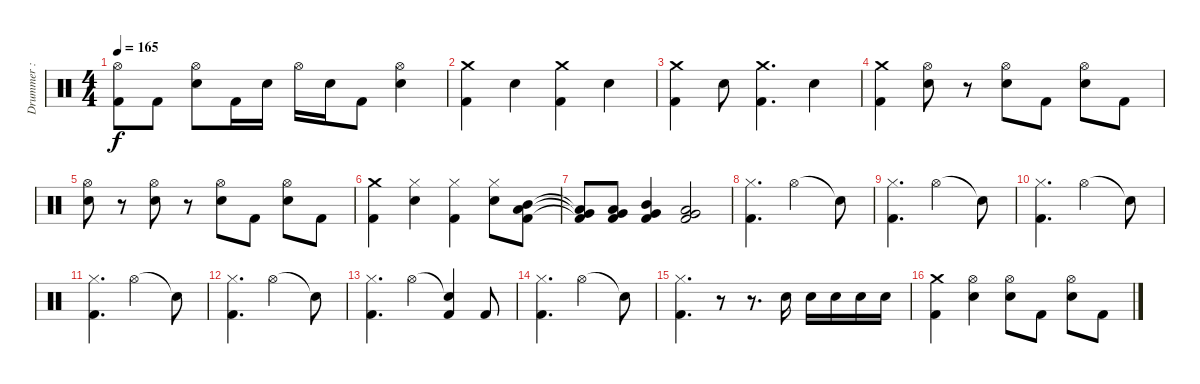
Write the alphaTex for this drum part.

\track ("Drummer : Tainaka Ritsu - Chan" "Drummer : ") {instrument percussion}
\staff {score}
\articulation defaults
\ts (4 4)
\tempo 165
\clef neutral
\ks c
("Hi-Hat (open)" "Kick (hit) 2").8{dy f} "Kick (hit) 2".8 ("Hi-Hat (open)" "Electric Snare (hit)").8 "Kick (hit) 2".16 "Electric Snare (hit)".16 "Hi-Hat (open)".16 "Electric Snare (hit)".16 "Kick (hit) 2".8 ("Hi-Hat (open)" "Electric Snare (hit)").4 |
("Crash medium (hit)" "Kick (hit) 2").4 "Electric Snare (hit)".4 ("Crash medium (hit)" "Kick (hit) 2").4 "Electric Snare (hit)".4 |
("Crash medium (hit)" "Kick (hit) 2").4 "Electric Snare (hit)".8 ("Crash medium (hit)" "Kick (hit) 2").4{d} "Electric Snare (hit)".4 |
("Crash medium (hit)" "Kick (hit) 2").4 ("Hi-Hat (open)" "Electric Snare (hit)").8 r.8 ("Hi-Hat (open)" "Electric Snare (hit)").8 "Kick (hit) 2".8 ("Hi-Hat (open)" "Electric Snare (hit)").8 "Kick (hit) 2".8 |
("Hi-Hat (open)" "Electric Snare (hit)").8 r.8 ("Hi-Hat (open)" "Electric Snare (hit)").8 r.8 ("Hi-Hat (open)" "Electric Snare (hit)").8 "Kick (hit) 2".8 ("Hi-Hat (open)" "Electric Snare (hit)").8 "Kick (hit) 2".8 |
("Crash medium (hit)" "Kick (hit) 2").4 ("Hi-Hat (closed)" "Electric Snare (hit)").4 ("Hi-Hat (closed)" "Kick (hit) 2").4 ("Hi-Hat (closed)" "Electric Snare (hit)").8 ("Mid Tom (hit)" "Low Tom (hit)" "Kick (hit) 2").8 |
("Low Tom (hit)"{t} "Very Low Tom (hit)"{t} "Kick (hit) 2"{t}).8 ("Low Tom (hit)" "Very Low Tom (hit)" "Kick (hit) 2").8 ("Mid Tom (hit)" "Very Low Tom (hit)" "Kick (hit) 2").4 ("Very Low Tom (hit)" "Low Floor Tom (hit)" "Kick (hit) 2").2 |
("Hi-Hat (closed)" "Kick (hit) 2").4{d} "Hi-Hat (open)".2 "Snare (hit)"{t}.8 |
("Hi-Hat (closed)" "Kick (hit) 2").4{d} "Hi-Hat (open)".2 "Snare (hit)"{t}.8 |
("Hi-Hat (closed)" "Kick (hit) 2").4{d} "Hi-Hat (open)".2 "Snare (hit)"{t}.8 |
("Hi-Hat (closed)" "Kick (hit) 2").4{d} "Hi-Hat (open)".2 "Snare (hit)"{t}.8 |
("Hi-Hat (closed)" "Kick (hit) 2").4{d} "Hi-Hat (open)".2 "Snare (hit)"{t}.8 |
("Hi-Hat (closed)" "Kick (hit) 2").4{d} "Hi-Hat (open)".4 ("Snare (hit)"{t} "Kick (hit) 2").4 "Kick (hit) 2".8 |
("Hi-Hat (closed)" "Kick (hit) 2").4{d} "Hi-Hat (open)".2 "Snare (hit)"{t}.8 |
("Hi-Hat (closed)" "Kick (hit) 2").4{d} r.8 r.8{d} "Electric Snare (hit)".16 "Electric Snare (hit)".16 "Electric Snare (hit)".16 "Electric Snare (hit)".16 "Electric Snare (hit)".16 |
("Crash medium (hit)" "Kick (hit) 2").4 ("Hi-Hat (open)" "Electric Snare (hit)").4 ("Hi-Hat (open)" "Electric Snare (hit)").8 "Kick (hit) 2".8 ("Hi-Hat (open)" "Electric Snare (hit)").8 "Kick (hit) 2".8
